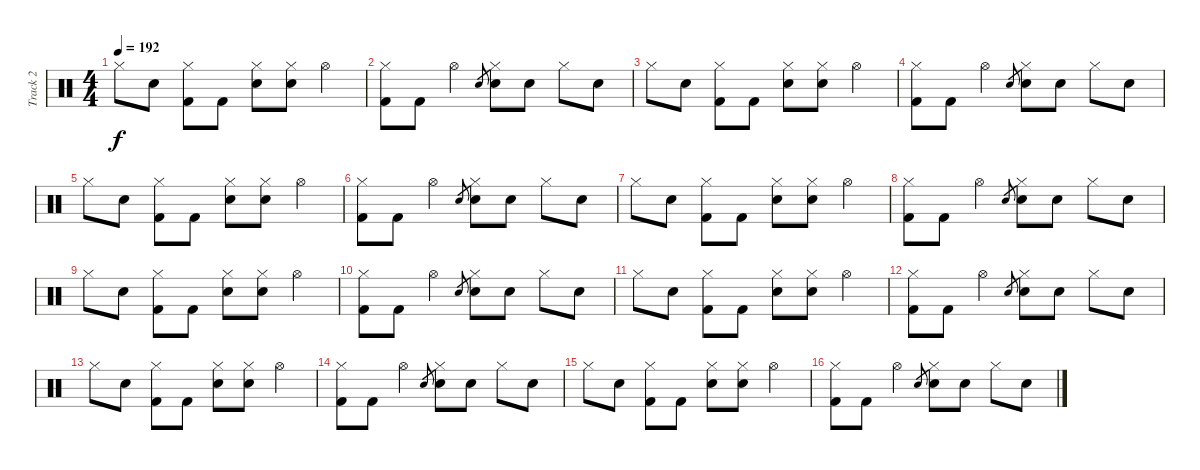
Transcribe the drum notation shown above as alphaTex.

\track ("Track 2" "Track 2") {instrument percussion}
\staff {score}
\articulation defaults
\ts (4 4)
\tempo 192
\clef neutral
\ks c "Hi-Hat (closed)".8{dy f} "Electric Snare (hit)".8
("Hi-Hat (closed)" "Kick (hit) 2").8 "Kick (hit) 2".8 ("Hi-Hat (closed)" "Electric Snare (hit)").8 ("Hi-Hat (closed)" "Electric Snare (hit)").8 "Hi-Hat (open)".4 |
("Hi-Hat (closed)" "Kick (hit) 2").8 "Kick (hit) 2".8 "Hi-Hat (open)".4 "Electric Snare (hit)".8{gr} ("Hi-Hat (closed)" "Electric Snare (hit)").8 "Electric Snare (hit)".8 "Hi-Hat (closed)".8 "Electric Snare (hit)".8 |
"Hi-Hat (closed)".8 "Electric Snare (hit)".8 ("Hi-Hat (closed)" "Kick (hit) 2").8 "Kick (hit) 2".8 ("Hi-Hat (closed)" "Electric Snare (hit)").8 ("Hi-Hat (closed)" "Electric Snare (hit)").8 "Hi-Hat (open)".4 |
("Hi-Hat (closed)" "Kick (hit) 2").8 "Kick (hit) 2".8 "Hi-Hat (open)".4 "Electric Snare (hit)".8{gr} ("Hi-Hat (closed)" "Electric Snare (hit)").8 "Electric Snare (hit)".8 "Hi-Hat (closed)".8 "Electric Snare (hit)".8 |
"Hi-Hat (closed)".8 "Electric Snare (hit)".8 ("Hi-Hat (closed)" "Kick (hit) 2").8 "Kick (hit) 2".8 ("Hi-Hat (closed)" "Electric Snare (hit)").8 ("Hi-Hat (closed)" "Electric Snare (hit)").8 "Hi-Hat (open)".4 |
("Hi-Hat (closed)" "Kick (hit) 2").8 "Kick (hit) 2".8 "Hi-Hat (open)".4 "Electric Snare (hit)".8{gr} ("Hi-Hat (closed)" "Electric Snare (hit)").8 "Electric Snare (hit)".8 "Hi-Hat (closed)".8 "Electric Snare (hit)".8 |
"Hi-Hat (closed)".8 "Electric Snare (hit)".8 ("Hi-Hat (closed)" "Kick (hit) 2").8 "Kick (hit) 2".8 ("Hi-Hat (closed)" "Electric Snare (hit)").8 ("Hi-Hat (closed)" "Electric Snare (hit)").8 "Hi-Hat (open)".4 |
("Hi-Hat (closed)" "Kick (hit) 2").8 "Kick (hit) 2".8 "Hi-Hat (open)".4 "Electric Snare (hit)".8{gr} ("Hi-Hat (closed)" "Electric Snare (hit)").8 "Electric Snare (hit)".8 "Hi-Hat (closed)".8 "Electric Snare (hit)".8 |
"Hi-Hat (closed)".8 "Electric Snare (hit)".8 ("Hi-Hat (closed)" "Kick (hit) 2").8 "Kick (hit) 2".8 ("Hi-Hat (closed)" "Electric Snare (hit)").8 ("Hi-Hat (closed)" "Electric Snare (hit)").8 "Hi-Hat (open)".4 |
("Hi-Hat (closed)" "Kick (hit) 2").8 "Kick (hit) 2".8 "Hi-Hat (open)".4 "Electric Snare (hit)".8{gr} ("Hi-Hat (closed)" "Electric Snare (hit)").8 "Electric Snare (hit)".8 "Hi-Hat (closed)".8 "Electric Snare (hit)".8 |
"Hi-Hat (closed)".8 "Electric Snare (hit)".8 ("Hi-Hat (closed)" "Kick (hit) 2").8 "Kick (hit) 2".8 ("Hi-Hat (closed)" "Electric Snare (hit)").8 ("Hi-Hat (closed)" "Electric Snare (hit)").8 "Hi-Hat (open)".4 |
("Hi-Hat (closed)" "Kick (hit) 2").8 "Kick (hit) 2".8 "Hi-Hat (open)".4 "Electric Snare (hit)".8{gr} ("Hi-Hat (closed)" "Electric Snare (hit)").8 "Electric Snare (hit)".8 "Hi-Hat (closed)".8 "Electric Snare (hit)".8 |
"Hi-Hat (closed)".8 "Electric Snare (hit)".8 ("Hi-Hat (closed)" "Kick (hit) 2").8 "Kick (hit) 2".8 ("Hi-Hat (closed)" "Electric Snare (hit)").8 ("Hi-Hat (closed)" "Electric Snare (hit)").8 "Hi-Hat (open)".4 |
("Hi-Hat (closed)" "Kick (hit) 2").8 "Kick (hit) 2".8 "Hi-Hat (open)".4 "Electric Snare (hit)".8{gr} ("Hi-Hat (closed)" "Electric Snare (hit)").8 "Electric Snare (hit)".8 "Hi-Hat (closed)".8 "Electric Snare (hit)".8 |
"Hi-Hat (closed)".8 "Electric Snare (hit)".8 ("Hi-Hat (closed)" "Kick (hit) 2").8 "Kick (hit) 2".8 ("Hi-Hat (closed)" "Electric Snare (hit)").8 ("Hi-Hat (closed)" "Electric Snare (hit)").8 "Hi-Hat (open)".4 |
("Hi-Hat (closed)" "Kick (hit) 2").8 "Kick (hit) 2".8 "Hi-Hat (open)".4 "Electric Snare (hit)".8{gr} ("Hi-Hat (closed)" "Electric Snare (hit)").8 "Electric Snare (hit)".8 "Hi-Hat (closed)".8 "Electric Snare (hit)".8
